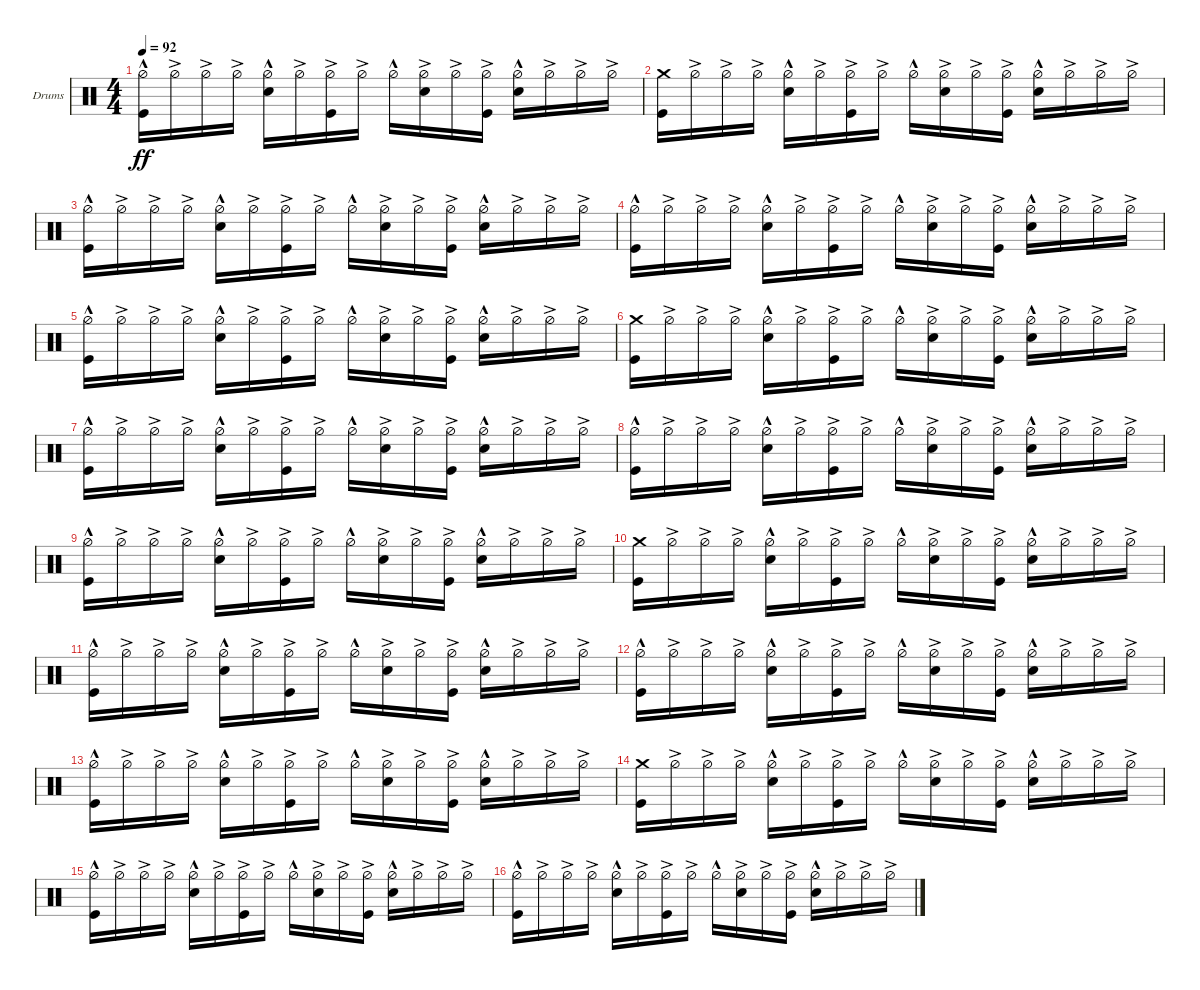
\defaultSystemsLayout 4
\bracketExtendMode groupsimilarinstruments
\firstSystemTrackNameOrientation horizontal
\otherSystemsTrackNameOrientation horizontal
\track ("Drumkit" "Drums") {instrument percussion}
\staff {score}
\articulation defaults
\ts (4 4)
\tempo 92
\clef neutral
\ks c
("Kick (hit)" "Hi-Hat (half)"{hac}).16{dy ff} "Hi-Hat (half)"{ac}.16 "Hi-Hat (half)"{ac}.16 "Hi-Hat (half)"{ac}.16 ("Hi-Hat (half)"{hac} "Snare (hit) 2").16 "Hi-Hat (half)"{ac}.16 ("Hi-Hat (half)"{ac} "Kick (hit)").16 "Hi-Hat (half)"{ac}.16 "Hi-Hat (half)"{hac}.16 ("Hi-Hat (half)"{ac} "Snare (hit) 2").16 "Hi-Hat (half)"{ac}.16 ("Hi-Hat (half)"{ac} "Kick (hit)").16 ("Hi-Hat (half)"{hac} "Snare (hit) 2").16 "Hi-Hat (half)"{ac}.16 "Hi-Hat (half)"{ac}.16 "Hi-Hat (half)"{ac}.16 |
("Kick (hit)" "Crash medium (hit)").16 "Hi-Hat (half)"{ac}.16 "Hi-Hat (half)"{ac}.16 "Hi-Hat (half)"{ac}.16 ("Hi-Hat (half)"{hac} "Snare (hit) 2").16 "Hi-Hat (half)"{ac}.16 ("Hi-Hat (half)"{ac} "Kick (hit)").16 "Hi-Hat (half)"{ac}.16 "Hi-Hat (half)"{hac}.16 ("Hi-Hat (half)"{ac} "Snare (hit) 2").16 "Hi-Hat (half)"{ac}.16 ("Hi-Hat (half)"{ac} "Kick (hit)").16 ("Hi-Hat (half)"{hac} "Snare (hit) 2").16 "Hi-Hat (half)"{ac}.16 "Hi-Hat (half)"{ac}.16 "Hi-Hat (half)"{ac}.16 |
("Kick (hit)" "Hi-Hat (half)"{hac}).16 "Hi-Hat (half)"{ac}.16 "Hi-Hat (half)"{ac}.16 "Hi-Hat (half)"{ac}.16 ("Hi-Hat (half)"{hac} "Snare (hit) 2").16 "Hi-Hat (half)"{ac}.16 ("Hi-Hat (half)"{ac} "Kick (hit)").16 "Hi-Hat (half)"{ac}.16 "Hi-Hat (half)"{hac}.16 ("Hi-Hat (half)"{ac} "Snare (hit) 2").16 "Hi-Hat (half)"{ac}.16 ("Hi-Hat (half)"{ac} "Kick (hit)").16 ("Hi-Hat (half)"{hac} "Snare (hit) 2").16 "Hi-Hat (half)"{ac}.16 "Hi-Hat (half)"{ac}.16 "Hi-Hat (half)"{ac}.16 |
("Kick (hit)" "Hi-Hat (half)"{hac}).16 "Hi-Hat (half)"{ac}.16 "Hi-Hat (half)"{ac}.16 "Hi-Hat (half)"{ac}.16 ("Hi-Hat (half)"{hac} "Snare (hit) 2").16 "Hi-Hat (half)"{ac}.16 ("Hi-Hat (half)"{ac} "Kick (hit)").16 "Hi-Hat (half)"{ac}.16 "Hi-Hat (half)"{hac}.16 ("Hi-Hat (half)"{ac} "Snare (hit) 2").16 "Hi-Hat (half)"{ac}.16 ("Hi-Hat (half)"{ac} "Kick (hit)").16 ("Hi-Hat (half)"{hac} "Snare (hit) 2").16 "Hi-Hat (half)"{ac}.16 "Hi-Hat (half)"{ac}.16 "Hi-Hat (half)"{ac}.16 |
("Kick (hit)" "Hi-Hat (half)"{hac}).16 "Hi-Hat (half)"{ac}.16 "Hi-Hat (half)"{ac}.16 "Hi-Hat (half)"{ac}.16 ("Hi-Hat (half)"{hac} "Snare (hit) 2").16 "Hi-Hat (half)"{ac}.16 ("Hi-Hat (half)"{ac} "Kick (hit)").16 "Hi-Hat (half)"{ac}.16 "Hi-Hat (half)"{hac}.16 ("Hi-Hat (half)"{ac} "Snare (hit) 2").16 "Hi-Hat (half)"{ac}.16 ("Hi-Hat (half)"{ac} "Kick (hit)").16 ("Hi-Hat (half)"{hac} "Snare (hit) 2").16 "Hi-Hat (half)"{ac}.16 "Hi-Hat (half)"{ac}.16 "Hi-Hat (half)"{ac}.16 |
("Kick (hit)" "Crash medium (hit)").16 "Hi-Hat (half)"{ac}.16 "Hi-Hat (half)"{ac}.16 "Hi-Hat (half)"{ac}.16 ("Hi-Hat (half)"{hac} "Snare (hit) 2").16 "Hi-Hat (half)"{ac}.16 ("Hi-Hat (half)"{ac} "Kick (hit)").16 "Hi-Hat (half)"{ac}.16 "Hi-Hat (half)"{hac}.16 ("Hi-Hat (half)"{ac} "Snare (hit) 2").16 "Hi-Hat (half)"{ac}.16 ("Hi-Hat (half)"{ac} "Kick (hit)").16 ("Hi-Hat (half)"{hac} "Snare (hit) 2").16 "Hi-Hat (half)"{ac}.16 "Hi-Hat (half)"{ac}.16 "Hi-Hat (half)"{ac}.16 |
("Kick (hit)" "Hi-Hat (half)"{hac}).16 "Hi-Hat (half)"{ac}.16 "Hi-Hat (half)"{ac}.16 "Hi-Hat (half)"{ac}.16 ("Hi-Hat (half)"{hac} "Snare (hit) 2").16 "Hi-Hat (half)"{ac}.16 ("Hi-Hat (half)"{ac} "Kick (hit)").16 "Hi-Hat (half)"{ac}.16 "Hi-Hat (half)"{hac}.16 ("Hi-Hat (half)"{ac} "Snare (hit) 2").16 "Hi-Hat (half)"{ac}.16 ("Hi-Hat (half)"{ac} "Kick (hit)").16 ("Hi-Hat (half)"{hac} "Snare (hit) 2").16 "Hi-Hat (half)"{ac}.16 "Hi-Hat (half)"{ac}.16 "Hi-Hat (half)"{ac}.16 |
("Kick (hit)" "Hi-Hat (half)"{hac}).16 "Hi-Hat (half)"{ac}.16 "Hi-Hat (half)"{ac}.16 "Hi-Hat (half)"{ac}.16 ("Hi-Hat (half)"{hac} "Snare (hit) 2").16 "Hi-Hat (half)"{ac}.16 ("Hi-Hat (half)"{ac} "Kick (hit)").16 "Hi-Hat (half)"{ac}.16 "Hi-Hat (half)"{hac}.16 ("Hi-Hat (half)"{ac} "Snare (hit) 2").16 "Hi-Hat (half)"{ac}.16 ("Hi-Hat (half)"{ac} "Kick (hit)").16 ("Hi-Hat (half)"{hac} "Snare (hit) 2").16 "Hi-Hat (half)"{ac}.16 "Hi-Hat (half)"{ac}.16 "Hi-Hat (half)"{ac}.16 |
("Kick (hit)" "Hi-Hat (half)"{hac}).16 "Hi-Hat (half)"{ac}.16 "Hi-Hat (half)"{ac}.16 "Hi-Hat (half)"{ac}.16 ("Hi-Hat (half)"{hac} "Snare (hit) 2").16 "Hi-Hat (half)"{ac}.16 ("Hi-Hat (half)"{ac} "Kick (hit)").16 "Hi-Hat (half)"{ac}.16 "Hi-Hat (half)"{hac}.16 ("Hi-Hat (half)"{ac} "Snare (hit) 2").16 "Hi-Hat (half)"{ac}.16 ("Hi-Hat (half)"{ac} "Kick (hit)").16 ("Hi-Hat (half)"{hac} "Snare (hit) 2").16 "Hi-Hat (half)"{ac}.16 "Hi-Hat (half)"{ac}.16 "Hi-Hat (half)"{ac}.16 |
("Kick (hit)" "Crash medium (hit)").16 "Hi-Hat (half)"{ac}.16 "Hi-Hat (half)"{ac}.16 "Hi-Hat (half)"{ac}.16 ("Hi-Hat (half)"{hac} "Snare (hit) 2").16 "Hi-Hat (half)"{ac}.16 ("Hi-Hat (half)"{ac} "Kick (hit)").16 "Hi-Hat (half)"{ac}.16 "Hi-Hat (half)"{hac}.16 ("Hi-Hat (half)"{ac} "Snare (hit) 2").16 "Hi-Hat (half)"{ac}.16 ("Hi-Hat (half)"{ac} "Kick (hit)").16 ("Hi-Hat (half)"{hac} "Snare (hit) 2").16 "Hi-Hat (half)"{ac}.16 "Hi-Hat (half)"{ac}.16 "Hi-Hat (half)"{ac}.16 |
("Kick (hit)" "Hi-Hat (half)"{hac}).16 "Hi-Hat (half)"{ac}.16 "Hi-Hat (half)"{ac}.16 "Hi-Hat (half)"{ac}.16 ("Hi-Hat (half)"{hac} "Snare (hit) 2").16 "Hi-Hat (half)"{ac}.16 ("Hi-Hat (half)"{ac} "Kick (hit)").16 "Hi-Hat (half)"{ac}.16 "Hi-Hat (half)"{hac}.16 ("Hi-Hat (half)"{ac} "Snare (hit) 2").16 "Hi-Hat (half)"{ac}.16 ("Hi-Hat (half)"{ac} "Kick (hit)").16 ("Hi-Hat (half)"{hac} "Snare (hit) 2").16 "Hi-Hat (half)"{ac}.16 "Hi-Hat (half)"{ac}.16 "Hi-Hat (half)"{ac}.16 |
("Kick (hit)" "Hi-Hat (half)"{hac}).16 "Hi-Hat (half)"{ac}.16 "Hi-Hat (half)"{ac}.16 "Hi-Hat (half)"{ac}.16 ("Hi-Hat (half)"{hac} "Snare (hit) 2").16 "Hi-Hat (half)"{ac}.16 ("Hi-Hat (half)"{ac} "Kick (hit)").16 "Hi-Hat (half)"{ac}.16 "Hi-Hat (half)"{hac}.16 ("Hi-Hat (half)"{ac} "Snare (hit) 2").16 "Hi-Hat (half)"{ac}.16 ("Hi-Hat (half)"{ac} "Kick (hit)").16 ("Hi-Hat (half)"{hac} "Snare (hit) 2").16 "Hi-Hat (half)"{ac}.16 "Hi-Hat (half)"{ac}.16 "Hi-Hat (half)"{ac}.16 |
("Kick (hit)" "Hi-Hat (half)"{hac}).16 "Hi-Hat (half)"{ac}.16 "Hi-Hat (half)"{ac}.16 "Hi-Hat (half)"{ac}.16 ("Hi-Hat (half)"{hac} "Snare (hit) 2").16 "Hi-Hat (half)"{ac}.16 ("Hi-Hat (half)"{ac} "Kick (hit)").16 "Hi-Hat (half)"{ac}.16 "Hi-Hat (half)"{hac}.16 ("Hi-Hat (half)"{ac} "Snare (hit) 2").16 "Hi-Hat (half)"{ac}.16 ("Hi-Hat (half)"{ac} "Kick (hit)").16 ("Hi-Hat (half)"{hac} "Snare (hit) 2").16 "Hi-Hat (half)"{ac}.16 "Hi-Hat (half)"{ac}.16 "Hi-Hat (half)"{ac}.16 |
("Kick (hit)" "Crash medium (hit)").16 "Hi-Hat (half)"{ac}.16 "Hi-Hat (half)"{ac}.16 "Hi-Hat (half)"{ac}.16 ("Hi-Hat (half)"{hac} "Snare (hit) 2").16 "Hi-Hat (half)"{ac}.16 ("Hi-Hat (half)"{ac} "Kick (hit)").16 "Hi-Hat (half)"{ac}.16 "Hi-Hat (half)"{hac}.16 ("Hi-Hat (half)"{ac} "Snare (hit) 2").16 "Hi-Hat (half)"{ac}.16 ("Hi-Hat (half)"{ac} "Kick (hit)").16 ("Hi-Hat (half)"{hac} "Snare (hit) 2").16 "Hi-Hat (half)"{ac}.16 "Hi-Hat (half)"{ac}.16 "Hi-Hat (half)"{ac}.16 |
("Kick (hit)" "Hi-Hat (half)"{hac}).16 "Hi-Hat (half)"{ac}.16 "Hi-Hat (half)"{ac}.16 "Hi-Hat (half)"{ac}.16 ("Hi-Hat (half)"{hac} "Snare (hit) 2").16 "Hi-Hat (half)"{ac}.16 ("Hi-Hat (half)"{ac} "Kick (hit)").16 "Hi-Hat (half)"{ac}.16 "Hi-Hat (half)"{hac}.16 ("Hi-Hat (half)"{ac} "Snare (hit) 2").16 "Hi-Hat (half)"{ac}.16 ("Hi-Hat (half)"{ac} "Kick (hit)").16 ("Hi-Hat (half)"{hac} "Snare (hit) 2").16 "Hi-Hat (half)"{ac}.16 "Hi-Hat (half)"{ac}.16 "Hi-Hat (half)"{ac}.16 |
("Kick (hit)" "Hi-Hat (half)"{hac}).16 "Hi-Hat (half)"{ac}.16 "Hi-Hat (half)"{ac}.16 "Hi-Hat (half)"{ac}.16 ("Hi-Hat (half)"{hac} "Snare (hit) 2").16 "Hi-Hat (half)"{ac}.16 ("Hi-Hat (half)"{ac} "Kick (hit)").16 "Hi-Hat (half)"{ac}.16 "Hi-Hat (half)"{hac}.16 ("Hi-Hat (half)"{ac} "Snare (hit) 2").16 "Hi-Hat (half)"{ac}.16 ("Hi-Hat (half)"{ac} "Kick (hit)").16 ("Hi-Hat (half)"{hac} "Snare (hit) 2").16 "Hi-Hat (half)"{ac}.16 "Hi-Hat (half)"{ac}.16 "Hi-Hat (half)"{ac}.16
